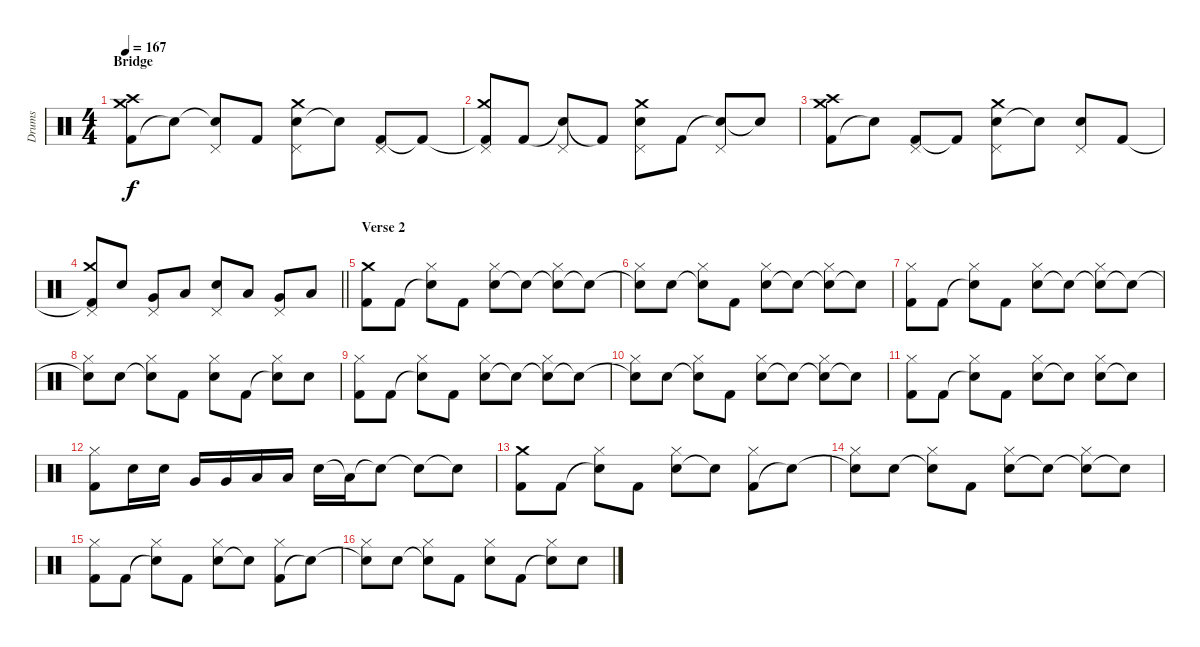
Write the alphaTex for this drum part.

\track ("Drums" "Drums") {instrument percussion}
\staff {score}
\articulation defaults
\ts (4 4)
\section ("" "Bridge")
\tempo 167
\clef neutral
\ks c
("Kick (hit) 2" "Crash medium (hit)" "Crash high (hit)").8{dy f} "Snare (hit)"{t}.8 ("Snare (hit)"{t} "Pedal Hi-Hat (hit)").8 "Kick (hit) 2".8 ("Electric Snare (hit)" "Crash medium (hit)" "Pedal Hi-Hat (hit)").8 "Electric Snare (hit)"{t}.8 ("Kick (hit) 2" "Pedal Hi-Hat (hit)").8 "Kick (hit) 2"{t}.8 |
("Kick (hit) 2"{t} "Crash medium (hit)" "Pedal Hi-Hat (hit)").8 "Kick (hit) 2".8 ("Electric Snare (hit)"{t} "Pedal Hi-Hat (hit)").8 "Kick (hit) 2"{t}.8 ("Electric Snare (hit)" "Crash medium (hit)" "Pedal Hi-Hat (hit)").8 "Kick (hit) 2".8 ("Snare (hit)"{t} "Pedal Hi-Hat (hit)").8 "Snare (hit)"{t}.8 |
("Kick (hit) 2" "Crash medium (hit)" "Crash high (hit)").8 "Snare (hit)"{t}.8 ("Kick (hit) 2" "Pedal Hi-Hat (hit)").8 "Kick (hit) 2"{t}.8 ("Electric Snare (hit)" "Crash medium (hit)" "Pedal Hi-Hat (hit)").8 "Electric Snare (hit)"{t}.8 ("Electric Snare (hit)" "Pedal Hi-Hat (hit)").8 "Kick (hit) 2".8 |
\barLineRight lightlight
("Kick (hit) 2"{t} "Crash medium (hit)" "Pedal Hi-Hat (hit)").8 "Electric Snare (hit)".8 ("Very Low Tom (hit)" "Pedal Hi-Hat (hit)").8 "Low Floor Tom (hit)".8 ("Electric Snare (hit)" "Pedal Hi-Hat (hit)").8 "Low Tom (hit)".8 ("Very Low Tom (hit)" "Pedal Hi-Hat (hit)").8 "Low Floor Tom (hit)".8 |
\section ("" "Verse 2")
("Kick (hit) 2" "Crash medium (hit)").8 "Kick (hit) 2".8 ("Snare (hit)"{t} "Hi-Hat (closed)").8 "Kick (hit) 2".8 ("Electric Snare (hit)" "Hi-Hat (closed)").8 "Snare (hit)"{t}.8 ("Snare (hit)"{t} "Hi-Hat (closed)").8 "Electric Snare (hit)"{t}.8 |
("Snare (hit)"{t} "Hi-Hat (closed)").8 "Electric Snare (hit)".8 ("Electric Snare (hit)"{t} "Hi-Hat (closed)").8 "Kick (hit) 2".8 ("Electric Snare (hit)" "Hi-Hat (closed)").8 "Electric Snare (hit)"{t}.8 ("Snare (hit)"{t} "Hi-Hat (closed)").8 "Snare (hit)"{t}.8 |
("Kick (hit) 2" "Hi-Hat (closed)").8 "Kick (hit) 2".8 ("Snare (hit)"{t} "Hi-Hat (closed)").8 "Kick (hit) 2".8 ("Electric Snare (hit)" "Hi-Hat (closed)").8 "Snare (hit)"{t}.8 ("Snare (hit)"{t} "Hi-Hat (closed)").8 "Electric Snare (hit)"{t}.8 |
("Snare (hit)"{t} "Hi-Hat (closed)").8 "Electric Snare (hit)".8 ("Electric Snare (hit)"{t} "Hi-Hat (closed)").8 "Kick (hit) 2".8 ("Electric Snare (hit)" "Hi-Hat (closed)").8 "Kick (hit) 2".8 ("Snare (hit)"{t} "Hi-Hat (closed)").8 "Electric Snare (hit)".8 |
("Kick (hit) 2" "Hi-Hat (closed)").8 "Kick (hit) 2".8 ("Snare (hit)"{t} "Hi-Hat (closed)").8 "Kick (hit) 2".8 ("Electric Snare (hit)" "Hi-Hat (closed)").8 "Snare (hit)"{t}.8 ("Snare (hit)"{t} "Hi-Hat (closed)").8 "Electric Snare (hit)"{t}.8 |
("Snare (hit)"{t} "Hi-Hat (closed)").8 "Electric Snare (hit)".8 ("Electric Snare (hit)"{t} "Hi-Hat (closed)").8 "Kick (hit) 2".8 ("Electric Snare (hit)" "Hi-Hat (closed)").8 "Electric Snare (hit)"{t}.8 ("Snare (hit)"{t} "Hi-Hat (closed)").8 "Snare (hit)"{t}.8 |
("Kick (hit) 2" "Hi-Hat (closed)").8 "Kick (hit) 2".8 ("Snare (hit)"{t} "Hi-Hat (closed)").8 "Kick (hit) 2".8 ("Electric Snare (hit)" "Hi-Hat (closed)").8 "Snare (hit)"{t}.8 ("Electric Snare (hit)" "Hi-Hat (closed)").8 "Electric Snare (hit)"{t}.8 |
("Kick (hit) 2" "Hi-Hat (closed)").8 "Electric Snare (hit)".16 "Electric Snare (hit)".16 "Very Low Tom (hit)".16 "Very Low Tom (hit)".16 "Low Floor Tom (hit)".16 "Low Floor Tom (hit)".16 "Electric Snare (hit)".16 "Low Floor Tom (hit)"{t}.16 "Electric Snare (hit)"{t}.8 "Snare (hit)"{t}.8 "Snare (hit)"{t}.8 |
("Kick (hit) 2" "Crash medium (hit)").8 "Kick (hit) 2".8 ("Snare (hit)"{t} "Hi-Hat (closed)").8 "Kick (hit) 2".8 ("Electric Snare (hit)" "Hi-Hat (closed)").8 "Snare (hit)"{t}.8 ("Kick (hit) 2" "Hi-Hat (closed)").8 "Electric Snare (hit)"{t}.8 |
("Snare (hit)"{t} "Hi-Hat (closed)").8 "Electric Snare (hit)".8 ("Electric Snare (hit)"{t} "Hi-Hat (closed)").8 "Kick (hit) 2".8 ("Electric Snare (hit)" "Hi-Hat (closed)").8 "Electric Snare (hit)"{t}.8 ("Snare (hit)"{t} "Hi-Hat (closed)").8 "Snare (hit)"{t}.8 |
("Kick (hit) 2" "Hi-Hat (closed)").8 "Kick (hit) 2".8 ("Snare (hit)"{t} "Hi-Hat (closed)").8 "Kick (hit) 2".8 ("Electric Snare (hit)" "Hi-Hat (closed)").8 "Snare (hit)"{t}.8 ("Kick (hit) 2" "Hi-Hat (closed)").8 "Electric Snare (hit)"{t}.8 |
("Snare (hit)"{t} "Hi-Hat (closed)").8 "Electric Snare (hit)".8 ("Electric Snare (hit)"{t} "Hi-Hat (closed)").8 "Kick (hit) 2".8 ("Electric Snare (hit)" "Hi-Hat (closed)").8 "Kick (hit) 2".8 ("Snare (hit)"{t} "Hi-Hat (closed)").8 "Electric Snare (hit)".8
